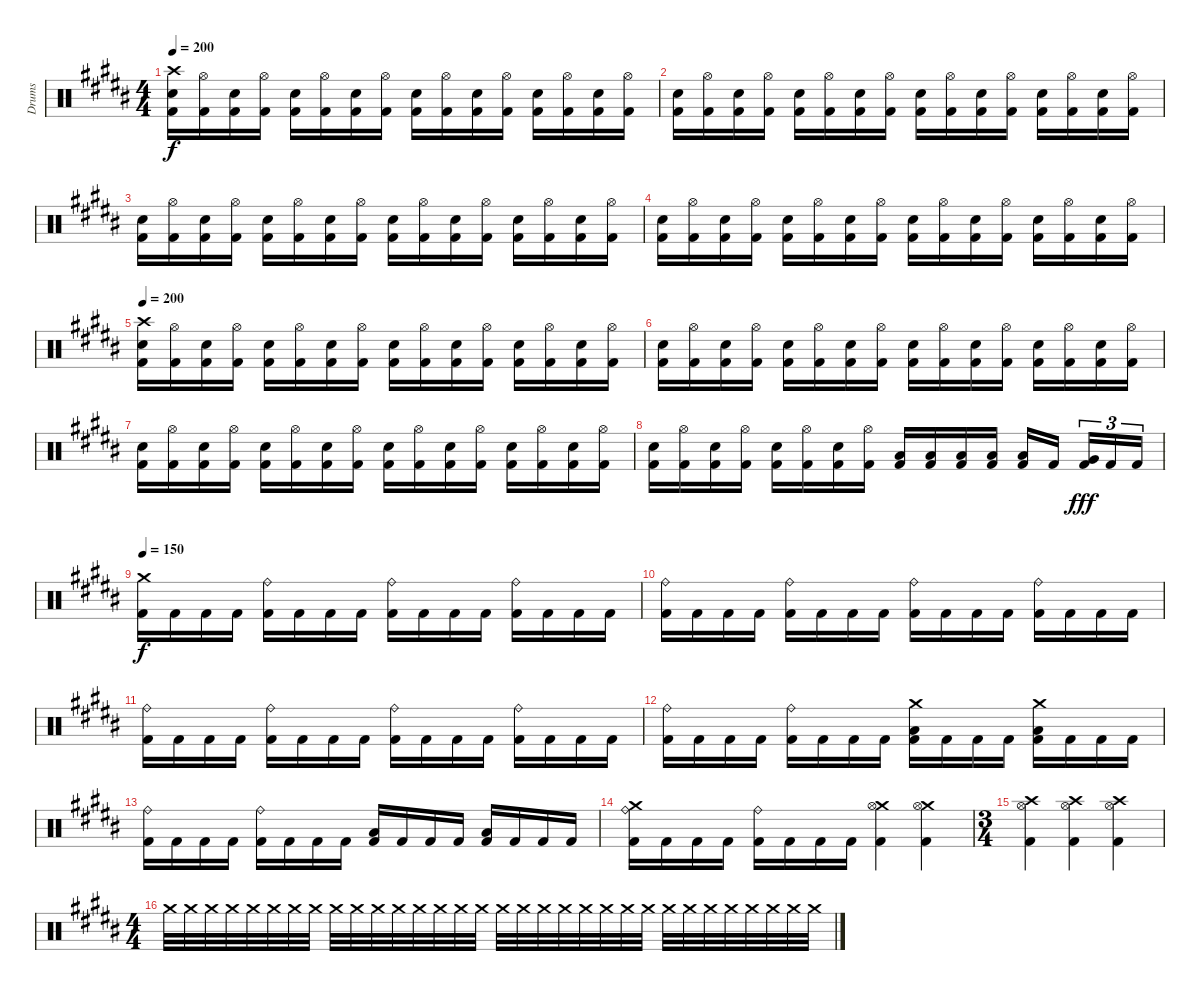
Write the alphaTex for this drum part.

\track ("Drums" "Drums") {instrument percussion}
\staff {score}
\articulation defaults
\ts (4 4)
\tempo 200
\clef neutral
\ks b
("Snare (hit) 2" "Crash high (hit)" "Kick (hit) 2").16{dy f} ("Hi-Hat (open)" "Kick (hit) 2").16 ("Snare (hit) 2" "Kick (hit) 2").16 ("Hi-Hat (open)" "Kick (hit) 2").16 ("Snare (hit) 2" "Kick (hit) 2").16 ("Hi-Hat (open)" "Kick (hit) 2").16 ("Snare (hit) 2" "Kick (hit) 2").16 ("Hi-Hat (open)" "Kick (hit) 2").16 ("Snare (hit) 2" "Kick (hit) 2").16 ("Hi-Hat (open)" "Kick (hit) 2").16 ("Snare (hit) 2" "Kick (hit) 2").16 ("Hi-Hat (open)" "Kick (hit) 2").16 ("Snare (hit) 2" "Kick (hit) 2").16 ("Hi-Hat (open)" "Kick (hit) 2").16 ("Snare (hit) 2" "Kick (hit) 2").16 ("Hi-Hat (open)" "Kick (hit) 2").16 |
("Snare (hit) 2" "Kick (hit) 2").16 ("Hi-Hat (open)" "Kick (hit) 2").16 ("Snare (hit) 2" "Kick (hit) 2").16 ("Hi-Hat (open)" "Kick (hit) 2").16 ("Snare (hit) 2" "Kick (hit) 2").16 ("Hi-Hat (open)" "Kick (hit) 2").16 ("Snare (hit) 2" "Kick (hit) 2").16 ("Hi-Hat (open)" "Kick (hit) 2").16 ("Snare (hit) 2" "Kick (hit) 2").16 ("Hi-Hat (open)" "Kick (hit) 2").16 ("Snare (hit) 2" "Kick (hit) 2").16 ("Hi-Hat (open)" "Kick (hit) 2").16 ("Snare (hit) 2" "Kick (hit) 2").16 ("Hi-Hat (open)" "Kick (hit) 2").16 ("Snare (hit) 2" "Kick (hit) 2").16 ("Hi-Hat (open)" "Kick (hit) 2").16 |
("Snare (hit) 2" "Kick (hit) 2").16 ("Hi-Hat (open)" "Kick (hit) 2").16 ("Snare (hit) 2" "Kick (hit) 2").16 ("Hi-Hat (open)" "Kick (hit) 2").16 ("Snare (hit) 2" "Kick (hit) 2").16 ("Hi-Hat (open)" "Kick (hit) 2").16 ("Snare (hit) 2" "Kick (hit) 2").16 ("Hi-Hat (open)" "Kick (hit) 2").16 ("Snare (hit) 2" "Kick (hit) 2").16 ("Hi-Hat (open)" "Kick (hit) 2").16 ("Snare (hit) 2" "Kick (hit) 2").16 ("Hi-Hat (open)" "Kick (hit) 2").16 ("Snare (hit) 2" "Kick (hit) 2").16 ("Hi-Hat (open)" "Kick (hit) 2").16 ("Snare (hit) 2" "Kick (hit) 2").16 ("Hi-Hat (open)" "Kick (hit) 2").16 |
("Snare (hit) 2" "Kick (hit) 2").16 ("Hi-Hat (open)" "Kick (hit) 2").16 ("Snare (hit) 2" "Kick (hit) 2").16 ("Hi-Hat (open)" "Kick (hit) 2").16 ("Snare (hit) 2" "Kick (hit) 2").16 ("Hi-Hat (open)" "Kick (hit) 2").16 ("Snare (hit) 2" "Kick (hit) 2").16 ("Hi-Hat (open)" "Kick (hit) 2").16 ("Snare (hit) 2" "Kick (hit) 2").16 ("Hi-Hat (open)" "Kick (hit) 2").16 ("Snare (hit) 2" "Kick (hit) 2").16 ("Hi-Hat (open)" "Kick (hit) 2").16 ("Snare (hit) 2" "Kick (hit) 2").16 ("Hi-Hat (open)" "Kick (hit) 2").16 ("Snare (hit) 2" "Kick (hit) 2").16 ("Hi-Hat (open)" "Kick (hit) 2").16 |
\tempo 200
("Snare (hit) 2" "Crash high (hit)" "Kick (hit) 2").16 ("Hi-Hat (open)" "Kick (hit) 2").16 ("Snare (hit) 2" "Kick (hit) 2").16 ("Hi-Hat (open)" "Kick (hit) 2").16 ("Snare (hit) 2" "Kick (hit) 2").16 ("Hi-Hat (open)" "Kick (hit) 2").16 ("Snare (hit) 2" "Kick (hit) 2").16 ("Hi-Hat (open)" "Kick (hit) 2").16 ("Snare (hit) 2" "Kick (hit) 2").16 ("Hi-Hat (open)" "Kick (hit) 2").16 ("Snare (hit) 2" "Kick (hit) 2").16 ("Hi-Hat (open)" "Kick (hit) 2").16 ("Snare (hit) 2" "Kick (hit) 2").16 ("Hi-Hat (open)" "Kick (hit) 2").16 ("Snare (hit) 2" "Kick (hit) 2").16 ("Hi-Hat (open)" "Kick (hit) 2").16 |
("Snare (hit) 2" "Kick (hit) 2").16 ("Hi-Hat (open)" "Kick (hit) 2").16 ("Snare (hit) 2" "Kick (hit) 2").16 ("Hi-Hat (open)" "Kick (hit) 2").16 ("Snare (hit) 2" "Kick (hit) 2").16 ("Hi-Hat (open)" "Kick (hit) 2").16 ("Snare (hit) 2" "Kick (hit) 2").16 ("Hi-Hat (open)" "Kick (hit) 2").16 ("Snare (hit) 2" "Kick (hit) 2").16 ("Hi-Hat (open)" "Kick (hit) 2").16 ("Snare (hit) 2" "Kick (hit) 2").16 ("Hi-Hat (open)" "Kick (hit) 2").16 ("Snare (hit) 2" "Kick (hit) 2").16 ("Hi-Hat (open)" "Kick (hit) 2").16 ("Snare (hit) 2" "Kick (hit) 2").16 ("Hi-Hat (open)" "Kick (hit) 2").16 |
("Snare (hit) 2" "Kick (hit) 2").16 ("Hi-Hat (open)" "Kick (hit) 2").16 ("Snare (hit) 2" "Kick (hit) 2").16 ("Hi-Hat (open)" "Kick (hit) 2").16 ("Snare (hit) 2" "Kick (hit) 2").16 ("Hi-Hat (open)" "Kick (hit) 2").16 ("Snare (hit) 2" "Kick (hit) 2").16 ("Hi-Hat (open)" "Kick (hit) 2").16 ("Snare (hit) 2" "Kick (hit) 2").16 ("Hi-Hat (open)" "Kick (hit) 2").16 ("Snare (hit) 2" "Kick (hit) 2").16 ("Hi-Hat (open)" "Kick (hit) 2").16 ("Snare (hit) 2" "Kick (hit) 2").16 ("Hi-Hat (open)" "Kick (hit) 2").16 ("Snare (hit) 2" "Kick (hit) 2").16 ("Hi-Hat (open)" "Kick (hit) 2").16 |
("Snare (hit) 2" "Kick (hit) 2").16 ("Hi-Hat (open)" "Kick (hit) 2").16 ("Snare (hit) 2" "Kick (hit) 2").16 ("Hi-Hat (open)" "Kick (hit) 2").16 ("Snare (hit) 2" "Kick (hit) 2").16 ("Hi-Hat (open)" "Kick (hit) 2").16 ("Snare (hit) 2" "Kick (hit) 2").16 ("Hi-Hat (open)" "Kick (hit) 2").16 ("Low Tom (hit)" "Kick (hit) 2").16 ("Low Tom (hit)" "Kick (hit) 2").16 ("Low Tom (hit)" "Kick (hit) 2").16 ("Low Tom (hit)" "Kick (hit) 2").16 ("Low Tom (hit)" "Kick (hit) 2").16 "Kick (hit) 2".16 ("Very Low Tom (hit)" "Kick (hit) 2").16{tu (3 2) dy fff} "Kick (hit) 2".16{tu (3 2)} "Kick (hit) 2".16{tu (3 2)} |
\tempo 150
("Kick (hit) 2" "Crash medium (hit)").16{dy f} "Kick (hit) 2".16 "Kick (hit) 2".16 "Kick (hit) 2".16 ("Kick (hit) 2" "Ride (bell)").16 "Kick (hit) 2".16 "Kick (hit) 2".16 "Kick (hit) 2".16 ("Kick (hit) 2" "Ride (bell)").16 "Kick (hit) 2".16 "Kick (hit) 2".16 "Kick (hit) 2".16 ("Kick (hit) 2" "Ride (bell)").16 "Kick (hit) 2".16 "Kick (hit) 2".16 "Kick (hit) 2".16 |
("Kick (hit) 2" "Ride (bell)").16 "Kick (hit) 2".16 "Kick (hit) 2".16 "Kick (hit) 2".16 ("Kick (hit) 2" "Ride (bell)").16 "Kick (hit) 2".16 "Kick (hit) 2".16 "Kick (hit) 2".16 ("Kick (hit) 2" "Ride (bell)").16 "Kick (hit) 2".16 "Kick (hit) 2".16 "Kick (hit) 2".16 ("Kick (hit) 2" "Ride (bell)").16 "Kick (hit) 2".16 "Kick (hit) 2".16 "Kick (hit) 2".16 |
("Kick (hit) 2" "Ride (bell)").16 "Kick (hit) 2".16 "Kick (hit) 2".16 "Kick (hit) 2".16 ("Kick (hit) 2" "Ride (bell)").16 "Kick (hit) 2".16 "Kick (hit) 2".16 "Kick (hit) 2".16 ("Kick (hit) 2" "Ride (bell)").16 "Kick (hit) 2".16 "Kick (hit) 2".16 "Kick (hit) 2".16 ("Kick (hit) 2" "Ride (bell)").16 "Kick (hit) 2".16 "Kick (hit) 2".16 "Kick (hit) 2".16 |
("Kick (hit) 2" "Ride (bell)").16 "Kick (hit) 2".16 "Kick (hit) 2".16 "Kick (hit) 2".16 ("Kick (hit) 2" "Ride (bell)").16 "Kick (hit) 2".16 "Kick (hit) 2".16 "Kick (hit) 2".16 ("Kick (hit) 2" "Crash medium (hit)" "Low Tom (hit)").16 "Kick (hit) 2".16 "Kick (hit) 2".16 "Kick (hit) 2".16 ("Kick (hit) 2" "Crash medium (hit)" "Low Tom (hit)").16 "Kick (hit) 2".16 "Kick (hit) 2".16 "Kick (hit) 2".16 |
("Kick (hit) 2" "Ride (bell)").16 "Kick (hit) 2".16 "Kick (hit) 2".16 "Kick (hit) 2".16 ("Kick (hit) 2" "Ride (bell)").16 "Kick (hit) 2".16 "Kick (hit) 2".16 "Kick (hit) 2".16 ("Kick (hit) 2" "Low Tom (hit)").16 "Kick (hit) 2".16 "Kick (hit) 2".16 "Kick (hit) 2".16 ("Kick (hit) 2" "Low Tom (hit)").16 "Kick (hit) 2".16 "Kick (hit) 2".16 "Kick (hit) 2".16 |
("Kick (hit) 2" "Crash medium (hit)" "Ride (bell)").16 "Kick (hit) 2".16 "Kick (hit) 2".16 "Kick (hit) 2".16 ("Kick (hit) 2" "Ride (bell)").16 "Kick (hit) 2".16 "Kick (hit) 2".16 "Kick (hit) 2".16 ("Kick (hit) 2" "Crash medium (hit)" "Hi-Hat (open)").4 ("Kick (hit) 2" "Crash medium (hit)" "Hi-Hat (open)").4 |
\ts (3 4)
("Kick (hit) 2" "Crash high (hit)" "Hi-Hat (open)").4 ("Kick (hit) 2" "Crash high (hit)" "Hi-Hat (open)").4 ("Kick (hit) 2" "Crash high (hit)" "Hi-Hat (open)").4 |
\ts (4 4)
"Crash medium (hit)".32 "Crash medium (hit)".32 "Crash medium (hit)".32 "Crash medium (hit)".32 "Crash medium (hit)".32 "Crash medium (hit)".32 "Crash medium (hit)".32 "Crash medium (hit)".32 "Crash medium (hit)".32 "Crash medium (hit)".32 "Crash medium (hit)".32 "Crash medium (hit)".32 "Crash medium (hit)".32 "Crash medium (hit)".32 "Crash medium (hit)".32 "Crash medium (hit)".32 "Crash medium (hit)".32 "Crash medium (hit)".32 "Crash medium (hit)".32 "Crash medium (hit)".32 "Crash medium (hit)".32 "Crash medium (hit)".32 "Crash medium (hit)".32 "Crash medium (hit)".32 "Crash medium (hit)".32 "Crash medium (hit)".32 "Crash medium (hit)".32 "Crash medium (hit)".32 "Crash medium (hit)".32 "Crash medium (hit)".32 "Crash medium (hit)".32 "Crash medium (hit)".32
